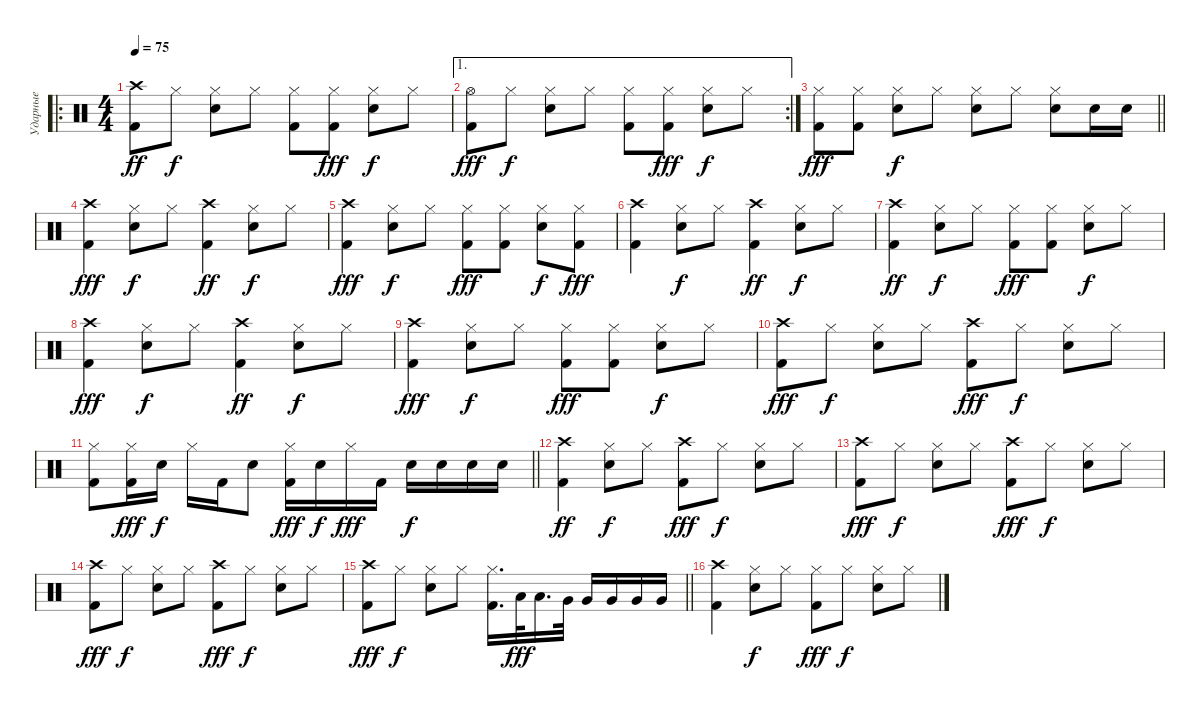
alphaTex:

\track ("Ударные" "Ударные") {instrument percussion}
\staff
\articulation defaults
\ro
\ts (4 4)
\tempo 75
\clef neutral
\ks c
("Kick (hit) 2" "Crash high (hit)").8{dy ff} "Hi-Hat (closed)".8{dy f} ("Snare (hit) 2" "Hi-Hat (closed)").8 "Hi-Hat (closed)".8 ("Kick (hit) 2" "Hi-Hat (closed)").8 ("Kick (hit) 2" "Hi-Hat (closed)").8{dy fff} ("Snare (hit) 2" "Hi-Hat (closed)").8{dy f} "Hi-Hat (closed)".8 |
\ae 1
\rc 2
("Kick (hit) 2" "Hi-Hat (open)").8{dy fff} "Hi-Hat (closed)".8{dy f} ("Snare (hit) 2" "Hi-Hat (closed)").8 "Hi-Hat (closed)".8 ("Kick (hit) 2" "Hi-Hat (closed)").8 ("Kick (hit) 2" "Hi-Hat (closed)").8{dy fff} ("Snare (hit) 2" "Hi-Hat (closed)").8{dy f} "Hi-Hat (closed)".8 |
\barLineRight lightlight
("Kick (hit) 2" "Hi-Hat (closed)").8{dy fff} ("Kick (hit) 2" "Hi-Hat (closed)").8 ("Snare (hit) 2" "Hi-Hat (closed)").8{dy f} "Hi-Hat (closed)".8 ("Snare (hit) 2" "Hi-Hat (closed)").8 "Hi-Hat (closed)".8 ("Snare (hit) 2" "Hi-Hat (closed)").8 "Snare (hit) 2".16 "Snare (hit) 2".16 |
("Kick (hit) 2" "Crash high (hit)").4{dy fff} ("Snare (hit) 2" "Hi-Hat (closed)").8{dy f} "Hi-Hat (closed)".8 ("Kick (hit) 2" "Crash high (hit)").4{dy ff} ("Snare (hit) 2" "Hi-Hat (closed)").8{dy f} "Hi-Hat (closed)".8 |
("Kick (hit) 2" "Crash high (hit)").4{dy fff} ("Snare (hit) 2" "Hi-Hat (closed)").8{dy f} "Hi-Hat (closed)".8 ("Kick (hit) 2" "Hi-Hat (closed)").8{dy fff} ("Kick (hit) 2" "Hi-Hat (closed)").8 ("Snare (hit) 2" "Hi-Hat (closed)").8{dy f} ("Kick (hit) 2" "Hi-Hat (closed)").8{dy fff} |
("Kick (hit) 2" "Crash high (hit)").4 ("Snare (hit) 2" "Hi-Hat (closed)").8{dy f} "Hi-Hat (closed)".8 ("Kick (hit) 2" "Crash high (hit)").4{dy ff} ("Snare (hit) 2" "Hi-Hat (closed)").8{dy f} "Hi-Hat (closed)".8 |
("Kick (hit) 2" "Crash high (hit)").4{dy ff} ("Snare (hit) 2" "Hi-Hat (closed)").8{dy f} "Hi-Hat (closed)".8 ("Kick (hit) 2" "Hi-Hat (closed)").8{dy fff} ("Kick (hit) 2" "Hi-Hat (closed)").8 ("Snare (hit) 2" "Hi-Hat (closed)").8{dy f} "Hi-Hat (closed)".8 |
("Kick (hit) 2" "Crash high (hit)").4{dy fff} ("Snare (hit) 2" "Hi-Hat (closed)").8{dy f} "Hi-Hat (closed)".8 ("Kick (hit) 2" "Crash high (hit)").4{dy ff} ("Snare (hit) 2" "Hi-Hat (closed)").8{dy f} "Hi-Hat (closed)".8 |
("Kick (hit) 2" "Crash high (hit)").4{dy fff} ("Snare (hit) 2" "Hi-Hat (closed)").8{dy f} "Hi-Hat (closed)".8 ("Kick (hit) 2" "Hi-Hat (closed)").8{dy fff} ("Kick (hit) 2" "Hi-Hat (closed)").8 ("Snare (hit) 2" "Hi-Hat (closed)").8{dy f} "Hi-Hat (closed)".8 |
("Kick (hit) 2" "Crash high (hit)").8{dy fff} "Hi-Hat (closed)".8{dy f} ("Snare (hit) 2" "Hi-Hat (closed)").8 "Hi-Hat (closed)".8 ("Kick (hit) 2" "Crash high (hit)").8{dy fff} "Hi-Hat (closed)".8{dy f} ("Snare (hit) 2" "Hi-Hat (closed)").8 "Hi-Hat (closed)".8 |
\barLineRight lightlight
("Kick (hit) 2" "Hi-Hat (closed)").8 ("Kick (hit) 2" "Hi-Hat (closed)").16{dy fff} "Snare (hit) 2".16{dy f} "Hi-Hat (closed)".16 "Kick (hit) 2".16 "Snare (hit) 2".8 ("Kick (hit) 2" "Hi-Hat (closed)").16{dy fff} "Snare (hit) 2".16{dy f} "Hi-Hat (closed)".16{dy fff} "Kick (hit) 2".16 "Snare (hit) 2".16{dy f} "Snare (hit) 2".16 "Snare (hit) 2".16 "Snare (hit) 2".16 |
("Kick (hit) 2" "Crash high (hit)").4{dy ff} ("Snare (hit) 2" "Hi-Hat (closed)").8{dy f} "Hi-Hat (closed)".8 ("Kick (hit) 2" "Crash high (hit)").8{dy fff} "Hi-Hat (closed)".8{dy f} ("Snare (hit) 2" "Hi-Hat (closed)").8 "Hi-Hat (closed)".8 |
("Kick (hit) 2" "Crash high (hit)").8{dy fff} "Hi-Hat (closed)".8{dy f} ("Snare (hit) 2" "Hi-Hat (closed)").8 "Hi-Hat (closed)".8 ("Kick (hit) 2" "Crash high (hit)").8{dy fff} "Hi-Hat (closed)".8{dy f} ("Snare (hit) 2" "Hi-Hat (closed)").8 "Hi-Hat (closed)".8 |
("Kick (hit) 2" "Crash high (hit)").8{dy fff} "Hi-Hat (closed)".8{dy f} ("Snare (hit) 2" "Hi-Hat (closed)").8 "Hi-Hat (closed)".8 ("Kick (hit) 2" "Crash high (hit)").8{dy fff} "Hi-Hat (closed)".8{dy f} ("Snare (hit) 2" "Hi-Hat (closed)").8 "Hi-Hat (closed)".8 |
\barLineRight lightlight
("Kick (hit) 2" "Crash high (hit)").8{dy fff} "Hi-Hat (closed)".8{dy f} ("Snare (hit) 2" "Hi-Hat (closed)").8 "Hi-Hat (closed)".8 ("Kick (hit) 2" "Hi-Hat (closed)").16{d} "Low Tom (hit)".32{dy fff} "Low Tom (hit)".16{d} "Very Low Tom (hit)".32 "Very Low Tom (hit)".16 "Very Low Tom (hit)".16 "Very Low Tom (hit)".16 "Very Low Tom (hit)".16 |
("Kick (hit) 2" "Crash high (hit)").4 ("Snare (hit) 2" "Hi-Hat (closed)").8{dy f} "Hi-Hat (closed)".8 ("Kick (hit) 2" "Hi-Hat (closed)").8{dy fff} "Hi-Hat (closed)".8{dy f} ("Snare (hit) 2" "Hi-Hat (closed)").8 "Hi-Hat (closed)".8
